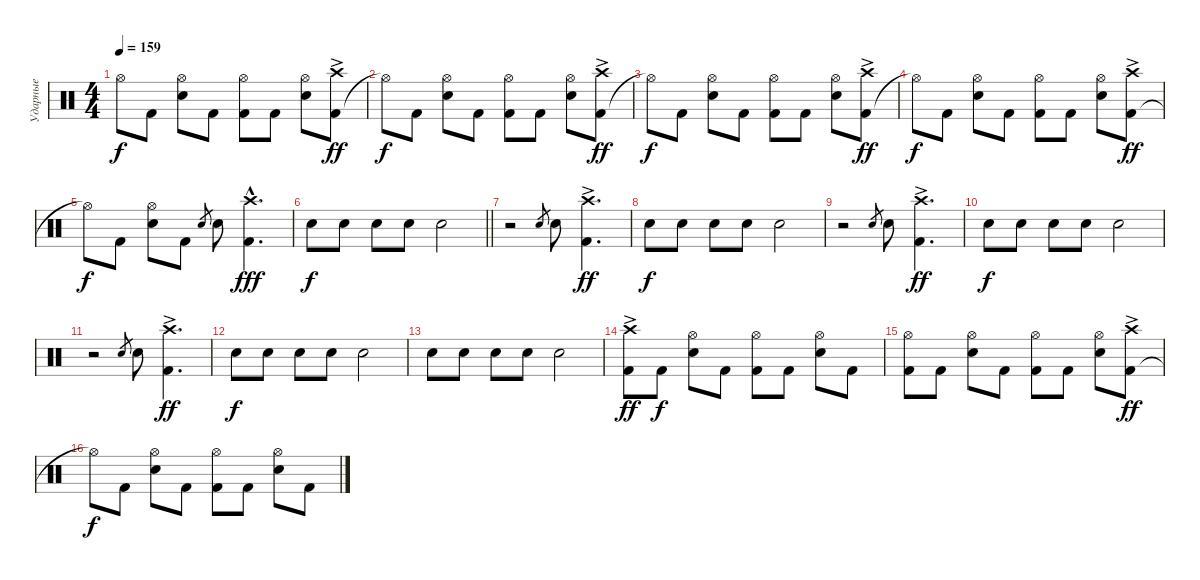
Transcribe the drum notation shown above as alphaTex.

\track ("Ударные" "Ударные") {instrument percussion}
\staff {score}
\articulation defaults
\ts (4 4)
\tempo 159
\clef neutral
\ks c "Hi-Hat (open)"{t}.8{dy f} "Kick (hit) 2".8
("Snare (hit) 2" "Hi-Hat (open)").8 "Kick (hit) 2".8 ("Kick (hit) 2" "Hi-Hat (open)").8 "Kick (hit) 2".8 ("Snare (hit) 2" "Hi-Hat (open)").8 ("Kick (hit) 2" "Crash high (hit)"{ac}).8{dy ff} |
"Hi-Hat (open)"{t}.8{dy f} "Kick (hit) 2".8 ("Snare (hit) 2" "Hi-Hat (open)").8 "Kick (hit) 2".8 ("Kick (hit) 2" "Hi-Hat (open)").8 "Kick (hit) 2".8 ("Snare (hit) 2" "Hi-Hat (open)").8 ("Kick (hit) 2" "Crash high (hit)"{ac}).8{dy ff} |
"Hi-Hat (open)"{t}.8{dy f} "Kick (hit) 2".8 ("Snare (hit) 2" "Hi-Hat (open)").8 "Kick (hit) 2".8 ("Kick (hit) 2" "Hi-Hat (open)").8 "Kick (hit) 2".8 ("Snare (hit) 2" "Hi-Hat (open)").8 ("Kick (hit) 2" "Crash high (hit)"{ac}).8{dy ff} |
"Hi-Hat (open)"{t}.8{dy f} "Kick (hit) 2".8 ("Snare (hit) 2" "Hi-Hat (open)").8 "Kick (hit) 2".8 ("Kick (hit) 2" "Hi-Hat (open)").8 "Kick (hit) 2".8 ("Snare (hit) 2" "Hi-Hat (open)").8 ("Kick (hit) 2" "Crash high (hit)"{ac}).8{dy ff} |
"Hi-Hat (open)"{t}.8{dy f} "Kick (hit) 2".8 ("Snare (hit) 2" "Hi-Hat (open)").8 "Kick (hit) 2".8 "Snare (hit) 2".8{gr} "Snare (hit) 2".8 ("Kick (hit) 2" "Crash high (hit)"{hac}).4{d dy fff} |
\barLineRight lightlight "Snare (hit) 2".8{dy f} "Snare (hit) 2".8 "Snare (hit) 2".8 "Snare (hit) 2".8 "Snare (hit) 2".2
|
r.2 "Snare (hit) 2".8{gr} "Snare (hit) 2".8 ("Kick (hit) 2" "Crash high (hit)"{ac}).4{d dy ff} |
"Snare (hit) 2".8{dy f} "Snare (hit) 2".8 "Snare (hit) 2".8 "Snare (hit) 2".8 "Snare (hit) 2".2 |
r.2 "Snare (hit) 2".8{gr} "Snare (hit) 2".8 ("Kick (hit) 2" "Crash high (hit)"{ac}).4{d dy ff} |
"Snare (hit) 2".8{dy f} "Snare (hit) 2".8 "Snare (hit) 2".8 "Snare (hit) 2".8 "Snare (hit) 2".2 |
r.2 "Snare (hit) 2".8{gr} "Snare (hit) 2".8 ("Kick (hit) 2" "Crash high (hit)"{ac}).4{d dy ff} |
"Snare (hit) 2".8{dy f} "Snare (hit) 2".8 "Snare (hit) 2".8 "Snare (hit) 2".8 "Snare (hit) 2".2 |
"Snare (hit) 2".8 "Snare (hit) 2".8 "Snare (hit) 2".8 "Snare (hit) 2".8 "Snare (hit) 2".2 |
("Kick (hit) 2" "Crash high (hit)"{ac}).8{dy ff} "Kick (hit) 2".8{dy f} ("Snare (hit) 2" "Hi-Hat (open)").8 "Kick (hit) 2".8 ("Kick (hit) 2" "Hi-Hat (open)").8 "Kick (hit) 2".8 ("Snare (hit) 2" "Hi-Hat (open)").8 "Kick (hit) 2".8 |
("Kick (hit) 2" "Hi-Hat (open)").8 "Kick (hit) 2".8 ("Snare (hit) 2" "Hi-Hat (open)").8 "Kick (hit) 2".8 ("Kick (hit) 2" "Hi-Hat (open)").8 "Kick (hit) 2".8 ("Snare (hit) 2" "Hi-Hat (open)").8 ("Kick (hit) 2" "Crash high (hit)"{ac}).8{dy ff} |
"Hi-Hat (open)"{t}.8{dy f} "Kick (hit) 2".8 ("Snare (hit) 2" "Hi-Hat (open)").8 "Kick (hit) 2".8 ("Kick (hit) 2" "Hi-Hat (open)").8 "Kick (hit) 2".8 ("Snare (hit) 2" "Hi-Hat (open)").8 "Kick (hit) 2".8
